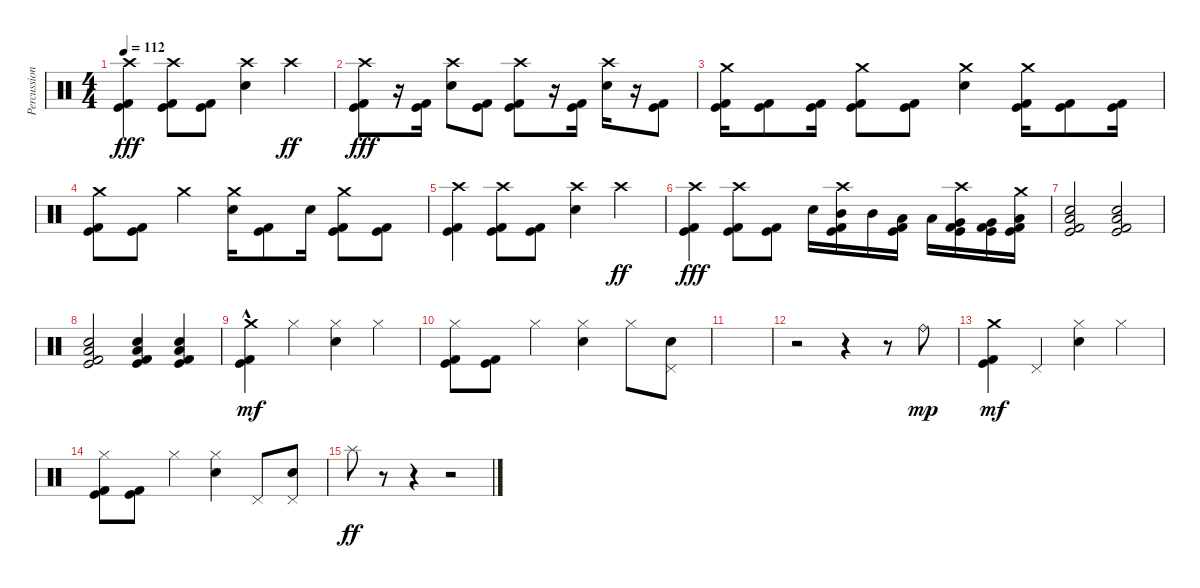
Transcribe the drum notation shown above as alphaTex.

\track ("Percussion" "Percussion") {instrument percussion}
\staff {score}
\articulation defaults
\ts (4 4)
\tempo 112
\clef neutral
\ks c
("Crash high (hit)" "Kick (hit)" "Kick (hit) 2").4{dy fff} ("Crash high (hit)" "Kick (hit)" "Kick (hit) 2").8 ("Kick (hit)" "Kick (hit) 2").8 ("Crash high (hit)" "Electric Snare (hit)").4 "Crash high (hit)".4{dy ff} |
("Crash high (hit)" "Kick (hit)" "Kick (hit) 2").8{dy fff} r.16 ("Kick (hit)" "Kick (hit) 2").16 ("Crash high (hit)" "Electric Snare (hit)").8 ("Kick (hit)" "Kick (hit) 2").8 ("Crash high (hit)" "Kick (hit)" "Kick (hit) 2").8 r.16 ("Kick (hit)" "Kick (hit) 2").16 ("Crash high (hit)" "Electric Snare (hit)").16 r.16 ("Kick (hit)" "Kick (hit) 2").8 |
("Crash medium (hit)" "Kick (hit)" "Kick (hit) 2").16 ("Kick (hit)" "Kick (hit) 2").8 ("Kick (hit)" "Kick (hit) 2").16 ("Crash medium (hit)" "Kick (hit)" "Kick (hit) 2").8 ("Kick (hit)" "Kick (hit) 2").8 ("Crash medium (hit)" "Electric Snare (hit)").4 ("Crash medium (hit)" "Kick (hit)" "Kick (hit) 2").16 ("Kick (hit)" "Kick (hit) 2").8 ("Kick (hit)" "Kick (hit) 2").16 |
("Crash medium (hit)" "Kick (hit)" "Kick (hit) 2").8 ("Kick (hit)" "Kick (hit) 2").8 "Crash medium (hit)".4 ("Crash medium (hit)" "Electric Snare (hit)").16 ("Kick (hit)" "Kick (hit) 2").8 "Electric Snare (hit)".16 ("Crash medium (hit)" "Kick (hit)" "Kick (hit) 2").8 ("Kick (hit)" "Kick (hit) 2").8 |
("Crash high (hit)" "Kick (hit)" "Kick (hit) 2").4 ("Crash high (hit)" "Kick (hit)" "Kick (hit) 2").8 ("Kick (hit)" "Kick (hit) 2").8 ("Crash high (hit)" "Electric Snare (hit)").4 "Crash high (hit)".4{dy ff} |
("Crash high (hit)" "Kick (hit)" "Kick (hit) 2").4{dy fff} ("Crash high (hit)" "Kick (hit)" "Kick (hit) 2").8 ("Kick (hit)" "Kick (hit) 2").8 "Electric Snare (hit)".16 ("Crash high (hit)" "Mid Tom (hit)" "Kick (hit)" "Kick (hit) 2").16 "Mid Tom (hit)".16 ("Low Tom (hit)" "Kick (hit)" "Kick (hit) 2").16 "Low Tom (hit)".16 ("Crash high (hit)" "Very Low Tom (hit)" "Kick (hit)" "Kick (hit) 2").16 ("Very Low Tom (hit)" "Kick (hit)" "Kick (hit) 2").16 ("Crash medium (hit)" "Low Floor Tom (hit)" "Kick (hit)" "Kick (hit) 2").16 |
("Electric Snare (hit)" "Low Floor Tom (hit)" "Kick (hit)" "Kick (hit) 2").2 ("Electric Snare (hit)" "Low Floor Tom (hit)" "Kick (hit)" "Kick (hit) 2").2 |
("Electric Snare (hit)" "Low Floor Tom (hit)" "Kick (hit)" "Kick (hit) 2").2 ("Electric Snare (hit)" "Low Floor Tom (hit)" "Kick (hit)" "Kick (hit) 2").4 ("Electric Snare (hit)" "Low Floor Tom (hit)" "Kick (hit)" "Kick (hit) 2").4 |
("Crash medium (hit)"{hac} "Kick (hit)" "Kick (hit) 2").4{dy mf} "Hi-Hat (closed)".4 ("Hi-Hat (closed)" "Electric Snare (hit)").4 "Hi-Hat (closed)".4 |
("Hi-Hat (closed)" "Kick (hit)" "Kick (hit) 2").8 ("Kick (hit)" "Kick (hit) 2").8 "Hi-Hat (closed)".4 ("Hi-Hat (closed)" "Electric Snare (hit)").4 "Hi-Hat (closed)".8 ("Pedal Hi-Hat (hit)" "Electric Snare (hit)").8 |
|
r.2 r.4 r.8 "Ride (bell)".8{dy mp} |
("Crash medium (hit)" "Kick (hit)" "Kick (hit) 2").4{dy mf} "Pedal Hi-Hat (hit)".4 ("Hi-Hat (closed)" "Electric Snare (hit)").4 "Hi-Hat (closed)".4 |
("Hi-Hat (closed)" "Kick (hit)" "Kick (hit) 2").8 ("Kick (hit)" "Kick (hit) 2").8 "Hi-Hat (closed)".4 ("Hi-Hat (closed)" "Electric Snare (hit)").4 "Pedal Hi-Hat (hit)".8 ("Pedal Hi-Hat (hit)" "Electric Snare (hit)").8 |
"Splash (hit)".8{dy ff} r.8 r.4 r.2
